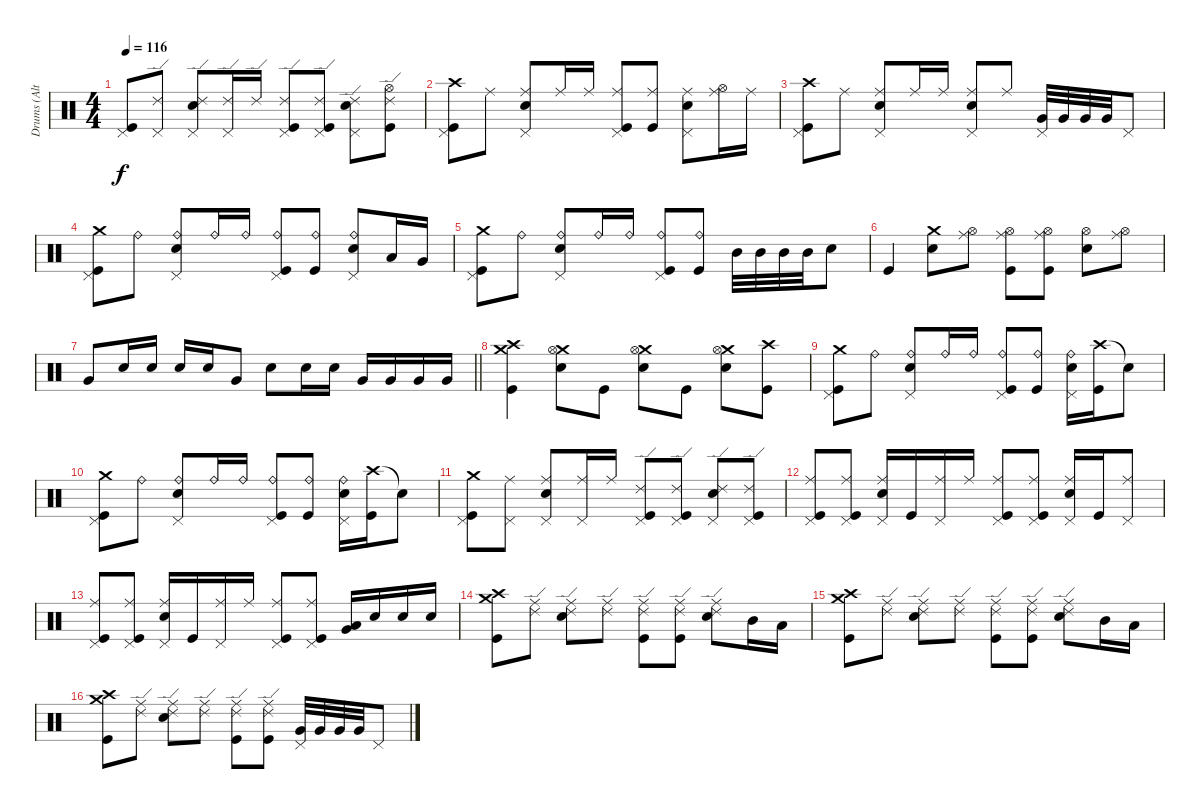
\track ("Drums (Alternate - NOT ON MASTER)" "Drums (Alt") {mute instrument percussion}
\staff {score}
\articulation defaults
\ts (4 4)
\tempo 116
\clef neutral
\ks c
("Pedal Hi-Hat (hit)" "Kick (hit)").8{dy f} ("Ride (edge) 2" "Pedal Hi-Hat (hit)").8 ("Ride (edge) 2" "Snare (hit) 2" "Pedal Hi-Hat (hit)").8 ("Ride (edge) 2" "Pedal Hi-Hat (hit)").16 "Ride (edge) 2".16 ("Ride (edge) 2" "Pedal Hi-Hat (hit)" "Kick (hit)").8 ("Ride (edge) 2" "Pedal Hi-Hat (hit)" "Kick (hit)").8 ("Ride (edge) 2" "Snare (hit) 2" "Pedal Hi-Hat (hit)").8 ("Ride (edge) 2" "Hi-Hat (open)" "Kick (hit)").8 |
("Crash high (hit)" "Pedal Hi-Hat (hit)" "Kick (hit)").8 "Ride (middle)".8 ("Ride (middle)" "Snare (hit) 2" "Pedal Hi-Hat (hit)").8 "Ride (middle)".16 "Ride (middle)".16 ("Ride (middle)" "Pedal Hi-Hat (hit)" "Kick (hit)").8 ("Ride (middle)" "Kick (hit)").8 ("Ride (middle)" "Snare (hit) 2" "Pedal Hi-Hat (hit)").8 ("Ride (middle)" "Hi-Hat (open)").16 "Ride (middle)".16 |
("Crash high (hit)" "Pedal Hi-Hat (hit)" "Kick (hit)").8 "Ride (middle)".8 ("Ride (middle)" "Snare (hit) 2" "Pedal Hi-Hat (hit)").8 "Ride (middle)".16 "Ride (middle)".16 ("Ride (middle)" "Snare (hit) 2" "Pedal Hi-Hat (hit)").8 "Ride (middle)".8 ("Very Low Tom (hit)" "Pedal Hi-Hat (hit)").32 "Very Low Tom (hit)".32 "Very Low Tom (hit)".32 "Very Low Tom (hit)".32 "Pedal Hi-Hat (hit)".8 |
("Crash medium (hit)" "Pedal Hi-Hat (hit)" "Kick (hit)").8 "Ride (bell)".8 ("Ride (bell)" "Snare (hit) 2" "Pedal Hi-Hat (hit)").8 "Ride (bell)".16 "Ride (bell)".16 ("Ride (bell)" "Pedal Hi-Hat (hit)" "Kick (hit)").8 ("Ride (bell)" "Kick (hit)").8 ("Ride (bell)" "Snare (hit) 2" "Pedal Hi-Hat (hit)").8 "Low Tom (hit)".16 "Very Low Tom (hit)".16 |
("Crash medium (hit)" "Pedal Hi-Hat (hit)" "Kick (hit)").8 "Ride (bell)".8 ("Ride (bell)" "Snare (hit) 2" "Pedal Hi-Hat (hit)").8 "Ride (bell)".16 "Ride (bell)".16 ("Ride (bell)" "Pedal Hi-Hat (hit)" "Kick (hit)").8 ("Ride (bell)" "Kick (hit)").8 "Mid Tom (hit)".32 "Mid Tom (hit)".32 "Mid Tom (hit)".32 "Mid Tom (hit)".32 "Snare (hit) 2".8 |
"Kick (hit)".4 ("Crash medium (hit)" "Snare (hit) 2").8 ("Ride (middle)" "Hi-Hat (open)").8 ("Ride (middle)" "Hi-Hat (open)" "Kick (hit)").8 ("Ride (middle)" "Hi-Hat (open)" "Kick (hit)").8 ("Snare (hit) 2" "Hi-Hat (open)").8 ("Ride (middle)" "Hi-Hat (open)").8 |
\barLineRight lightlight "Very Low Tom (hit)".8 "Snare (hit) 2".16 "Snare (hit) 2".16 "Snare (hit) 2".16 "Snare (hit) 2".16 "Very Low Tom (hit)".8 "Snare (hit) 2".8 "Snare (hit) 2".16 "Snare (hit) 2".16 "Very Low Tom (hit)".16 "Very Low Tom (hit)".16 "Very Low Tom (hit)".16 "Very Low Tom (hit)".16
|
("Crash medium (hit)" "Crash high (hit)" "Kick (hit)").4 ("Crash medium (hit)" "Snare (hit) 2" "Hi-Hat (open)").8 "Kick (hit)".8 ("Crash medium (hit)" "Snare (hit) 2" "Hi-Hat (open)").8 "Kick (hit)".8 ("Crash medium (hit)" "Snare (hit) 2" "Hi-Hat (open)").8 ("Crash high (hit)" "Kick (hit)").8 |
("Crash medium (hit)" "Pedal Hi-Hat (hit)" "Kick (hit)").8 "Ride (bell)".8 ("Ride (bell)" "Snare (hit) 2" "Pedal Hi-Hat (hit)").8 "Ride (bell)".16 "Ride (bell)".16 ("Ride (bell)" "Pedal Hi-Hat (hit)" "Kick (hit)").8 ("Ride (bell)" "Kick (hit)").8 ("Ride (bell)" "Snare (hit) 2" "Pedal Hi-Hat (hit)").16 ("Crash high (hit)" "Kick (hit)").16 "Snare (hit)"{t}.8 |
("Crash medium (hit)" "Pedal Hi-Hat (hit)" "Kick (hit)").8 "Ride (bell)".8 ("Ride (bell)" "Snare (hit) 2" "Pedal Hi-Hat (hit)").8 "Ride (bell)".16 "Ride (bell)".16 ("Ride (bell)" "Pedal Hi-Hat (hit)" "Kick (hit)").8 ("Ride (bell)" "Kick (hit)").8 ("Ride (bell)" "Snare (hit) 2" "Pedal Hi-Hat (hit)").16 ("Crash high (hit)" "Kick (hit)").16 "Snare (hit)"{t}.8 |
("Crash medium (hit)" "Pedal Hi-Hat (hit)" "Kick (hit)").8 ("Ride (middle)" "Pedal Hi-Hat (hit)").8 ("Ride (middle)" "Snare (hit) 2" "Pedal Hi-Hat (hit)").8 ("Ride (middle)" "Pedal Hi-Hat (hit)").16 "Ride (middle)".16 ("Ride (edge) 2" "Pedal Hi-Hat (hit)" "Kick (hit)").8 ("Ride (edge) 2" "Pedal Hi-Hat (hit)" "Kick (hit)").8 ("Ride (edge) 2" "Snare (hit) 2" "Pedal Hi-Hat (hit)").8 ("Ride (edge) 2" "Pedal Hi-Hat (hit)" "Kick (hit)").8 |
("Ride (middle)" "Pedal Hi-Hat (hit)" "Kick (hit)").8 ("Ride (middle)" "Pedal Hi-Hat (hit)" "Kick (hit)").8 ("Ride (middle)" "Snare (hit) 2" "Pedal Hi-Hat (hit)").16 "Kick (hit)".16 ("Ride (middle)" "Pedal Hi-Hat (hit)").16 "Ride (middle)".16 ("Ride (middle)" "Pedal Hi-Hat (hit)" "Kick (hit)").8 ("Ride (middle)" "Pedal Hi-Hat (hit)" "Kick (hit)").8 ("Ride (middle)" "Snare (hit) 2" "Pedal Hi-Hat (hit)").16 "Kick (hit)".16 ("Ride (middle)" "Pedal Hi-Hat (hit)").8 |
("Ride (middle)" "Pedal Hi-Hat (hit)" "Kick (hit)").8 ("Ride (middle)" "Pedal Hi-Hat (hit)" "Kick (hit)").8 ("Ride (middle)" "Snare (hit) 2" "Pedal Hi-Hat (hit)").16 "Kick (hit)".16 ("Ride (middle)" "Pedal Hi-Hat (hit)").16 "Ride (middle)".16 ("Ride (middle)" "Pedal Hi-Hat (hit)" "Kick (hit)").8 ("Ride (middle)" "Pedal Hi-Hat (hit)" "Kick (hit)").8 ("Low Tom (hit)" "Very Low Tom (hit)").16 "Snare (hit) 2".16 "Snare (hit) 2".16 "Snare (hit) 2".16 |
("Crash medium (hit)" "Crash high (hit)" "Kick (hit)").8 ("Ride (middle)" "Ride (edge) 2").8 ("Ride (middle)" "Ride (edge) 2" "Snare (hit) 2").8 ("Ride (middle)" "Ride (edge) 2").8 ("Ride (middle)" "Ride (edge) 2" "Kick (hit)").8 ("Ride (middle)" "Ride (edge) 2" "Kick (hit)").8 ("Ride (middle)" "Ride (edge) 2" "Snare (hit) 2").8 "Mid Tom (hit)".16 "Low Tom (hit)".16 |
("Crash medium (hit)" "Crash high (hit)" "Kick (hit)").8 ("Ride (middle)" "Ride (edge) 2").8 ("Ride (middle)" "Ride (edge) 2" "Snare (hit) 2").8 ("Ride (middle)" "Ride (edge) 2").8 ("Ride (middle)" "Ride (edge) 2" "Kick (hit)").8 ("Ride (middle)" "Ride (edge) 2" "Kick (hit)").8 ("Ride (middle)" "Ride (edge) 2" "Snare (hit) 2").8 "Mid Tom (hit)".16 "Low Tom (hit)".16 |
("Crash medium (hit)" "Crash high (hit)" "Kick (hit)").8 ("Ride (middle)" "Ride (edge) 2").8 ("Ride (middle)" "Ride (edge) 2" "Snare (hit) 2").8 ("Ride (middle)" "Ride (edge) 2").8 ("Ride (middle)" "Ride (edge) 2" "Kick (hit)").8 ("Ride (middle)" "Ride (edge) 2" "Kick (hit)").8 ("Very Low Tom (hit)" "Pedal Hi-Hat (hit)").32 "Very Low Tom (hit)".32 "Very Low Tom (hit)".32 "Very Low Tom (hit)".32 "Pedal Hi-Hat (hit)".8
